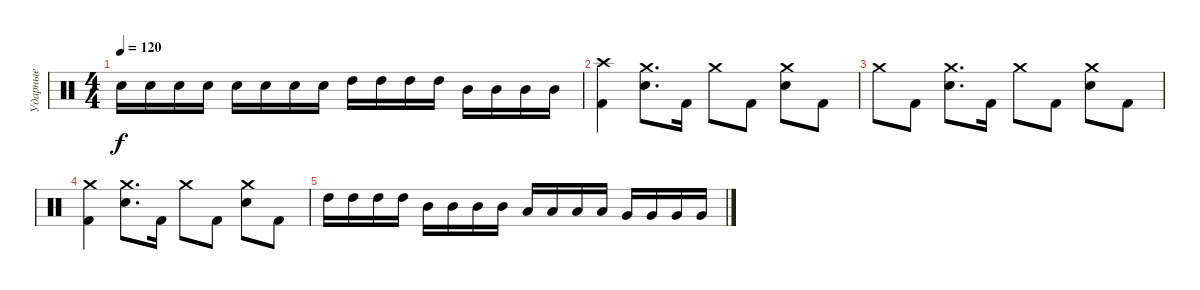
\track ("Ударные" "Ударные") {instrument percussion}
\staff {score}
\articulation defaults
\ts (4 4)
\tempo 120
\clef neutral
\ks c "Electric Snare (hit)".16{dy f} "Electric Snare (hit)".16 "Electric Snare (hit)".16 "Electric Snare (hit)".16 "Electric Snare (hit)".16 "Electric Snare (hit)".16 "Electric Snare (hit)".16 "Electric Snare (hit)".16 "High Tom (hit)".16 "High Tom (hit)".16 "High Tom (hit)".16 "High Tom (hit)".16 "Mid Tom (hit)".16 "Mid Tom (hit)".16 "Mid Tom (hit)".16 "Mid Tom (hit)".16
|
("Crash high (hit)" "Kick (hit) 2").4{volume 0} ("Crash medium (hit)" "Electric Snare (hit)").8{d} "Kick (hit) 2".16 "Crash medium (hit)".8 "Kick (hit) 2".8 ("Crash medium (hit)" "Electric Snare (hit)").8 "Kick (hit) 2".8 |
"Crash medium (hit)".8 "Kick (hit) 2".8 ("Crash medium (hit)" "Electric Snare (hit)").8{d} "Kick (hit) 2".16 "Crash medium (hit)".8 "Kick (hit) 2".8 ("Crash medium (hit)" "Electric Snare (hit)").8 "Kick (hit) 2".8 |
("Crash medium (hit)" "Kick (hit) 2").4 ("Crash medium (hit)" "Electric Snare (hit)").8{d} "Kick (hit) 2".16 "Crash medium (hit)".8 "Kick (hit) 2".8 ("Crash medium (hit)" "Electric Snare (hit)").8 "Kick (hit) 2".8 |
"High Tom (hit)".16 "High Tom (hit)".16 "High Tom (hit)".16 "High Tom (hit)".16 "Mid Tom (hit)".16 "Mid Tom (hit)".16 "Mid Tom (hit)".16 "Mid Tom (hit)".16 "Low Tom (hit)".16 "Low Tom (hit)".16 "Low Tom (hit)".16 "Low Tom (hit)".16 "Very Low Tom (hit)".16 "Very Low Tom (hit)".16 "Very Low Tom (hit)".16 "Very Low Tom (hit)".16
